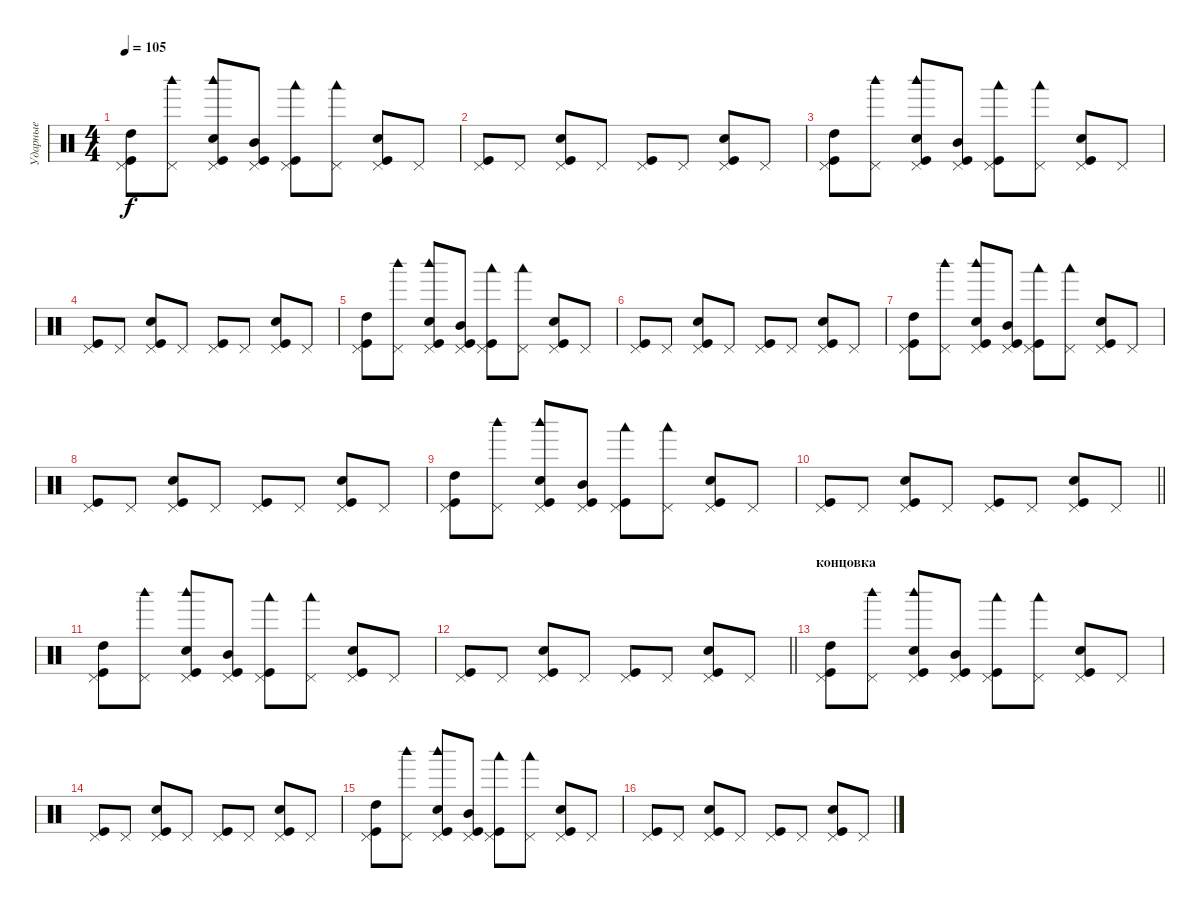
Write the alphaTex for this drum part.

\track ("Ударные" "Ударные") {instrument percussion}
\staff {score}
\articulation defaults
\ts (4 4)
\tempo 105
\clef neutral
\ks c
("Pedal Hi-Hat (hit)" "Kick (hit)" "High Tom (hit)").8{dy f} ("Pedal Hi-Hat (hit)" "Woodblock high (hit)").8 ("Pedal Hi-Hat (hit)" "Kick (hit)" "Snare (hit) 2" "Woodblock high (hit)").8 ("Pedal Hi-Hat (hit)" "Kick (hit)" "Mid Tom (hit)").8 ("Pedal Hi-Hat (hit)" "Kick (hit)" "Woodblock low (hit)").8 ("Pedal Hi-Hat (hit)" "Woodblock low (hit)").8 ("Pedal Hi-Hat (hit)" "Kick (hit)" "Snare (hit) 2").8 "Pedal Hi-Hat (hit)".8 |
("Pedal Hi-Hat (hit)" "Kick (hit)").8 "Pedal Hi-Hat (hit)".8 ("Pedal Hi-Hat (hit)" "Kick (hit)" "Snare (hit) 2").8 "Pedal Hi-Hat (hit)".8 ("Pedal Hi-Hat (hit)" "Kick (hit)").8 "Pedal Hi-Hat (hit)".8 ("Pedal Hi-Hat (hit)" "Kick (hit)" "Snare (hit) 2").8 "Pedal Hi-Hat (hit)".8 |
("Pedal Hi-Hat (hit)" "Kick (hit)" "High Tom (hit)").8 ("Pedal Hi-Hat (hit)" "Woodblock high (hit)").8 ("Pedal Hi-Hat (hit)" "Kick (hit)" "Woodblock high (hit)" "Snare (hit) 2").8 ("Pedal Hi-Hat (hit)" "Kick (hit)" "Mid Tom (hit)").8 ("Pedal Hi-Hat (hit)" "Kick (hit)" "Woodblock low (hit)").8 ("Pedal Hi-Hat (hit)" "Woodblock low (hit)").8 ("Pedal Hi-Hat (hit)" "Kick (hit)" "Snare (hit) 2").8 "Pedal Hi-Hat (hit)".8 |
("Pedal Hi-Hat (hit)" "Kick (hit)").8 "Pedal Hi-Hat (hit)".8 ("Pedal Hi-Hat (hit)" "Kick (hit)" "Snare (hit) 2").8 "Pedal Hi-Hat (hit)".8 ("Pedal Hi-Hat (hit)" "Kick (hit)").8 "Pedal Hi-Hat (hit)".8 ("Pedal Hi-Hat (hit)" "Kick (hit)" "Snare (hit) 2").8 "Pedal Hi-Hat (hit)".8 |
("Pedal Hi-Hat (hit)" "Kick (hit)" "High Tom (hit)").8 ("Pedal Hi-Hat (hit)" "Woodblock high (hit)").8 ("Pedal Hi-Hat (hit)" "Kick (hit)" "Snare (hit) 2" "Woodblock high (hit)").8 ("Pedal Hi-Hat (hit)" "Kick (hit)" "Mid Tom (hit)").8 ("Pedal Hi-Hat (hit)" "Kick (hit)" "Woodblock low (hit)").8 ("Pedal Hi-Hat (hit)" "Woodblock low (hit)").8 ("Pedal Hi-Hat (hit)" "Kick (hit)" "Snare (hit) 2").8 "Pedal Hi-Hat (hit)".8 |
("Pedal Hi-Hat (hit)" "Kick (hit)").8 "Pedal Hi-Hat (hit)".8 ("Pedal Hi-Hat (hit)" "Kick (hit)" "Snare (hit) 2").8 "Pedal Hi-Hat (hit)".8 ("Pedal Hi-Hat (hit)" "Kick (hit)").8 "Pedal Hi-Hat (hit)".8 ("Pedal Hi-Hat (hit)" "Kick (hit)" "Snare (hit) 2").8 "Pedal Hi-Hat (hit)".8 |
("Pedal Hi-Hat (hit)" "Kick (hit)" "High Tom (hit)").8 ("Pedal Hi-Hat (hit)" "Woodblock high (hit)").8 ("Pedal Hi-Hat (hit)" "Kick (hit)" "Snare (hit) 2" "Woodblock high (hit)").8 ("Pedal Hi-Hat (hit)" "Kick (hit)" "Mid Tom (hit)").8 ("Pedal Hi-Hat (hit)" "Kick (hit)" "Woodblock low (hit)").8 ("Pedal Hi-Hat (hit)" "Woodblock low (hit)").8 ("Pedal Hi-Hat (hit)" "Kick (hit)" "Snare (hit) 2").8 "Pedal Hi-Hat (hit)".8 |
("Pedal Hi-Hat (hit)" "Kick (hit)").8 "Pedal Hi-Hat (hit)".8 ("Pedal Hi-Hat (hit)" "Kick (hit)" "Snare (hit) 2").8 "Pedal Hi-Hat (hit)".8 ("Pedal Hi-Hat (hit)" "Kick (hit)").8 "Pedal Hi-Hat (hit)".8 ("Pedal Hi-Hat (hit)" "Kick (hit)" "Snare (hit) 2").8 "Pedal Hi-Hat (hit)".8 |
("Pedal Hi-Hat (hit)" "Kick (hit)" "High Tom (hit)").8 ("Pedal Hi-Hat (hit)" "Woodblock high (hit)").8 ("Pedal Hi-Hat (hit)" "Kick (hit)" "Snare (hit) 2" "Woodblock high (hit)").8 ("Pedal Hi-Hat (hit)" "Kick (hit)" "Mid Tom (hit)").8 ("Pedal Hi-Hat (hit)" "Kick (hit)" "Woodblock low (hit)").8 ("Pedal Hi-Hat (hit)" "Woodblock low (hit)").8 ("Pedal Hi-Hat (hit)" "Kick (hit)" "Snare (hit) 2").8 "Pedal Hi-Hat (hit)".8 |
\barLineRight lightlight
("Pedal Hi-Hat (hit)" "Kick (hit)").8 "Pedal Hi-Hat (hit)".8 ("Pedal Hi-Hat (hit)" "Kick (hit)" "Snare (hit) 2").8 "Pedal Hi-Hat (hit)".8 ("Pedal Hi-Hat (hit)" "Kick (hit)").8 "Pedal Hi-Hat (hit)".8 ("Pedal Hi-Hat (hit)" "Kick (hit)" "Snare (hit) 2").8 "Pedal Hi-Hat (hit)".8 |
("Pedal Hi-Hat (hit)" "Kick (hit)" "High Tom (hit)").8 ("Pedal Hi-Hat (hit)" "Woodblock high (hit)").8 ("Pedal Hi-Hat (hit)" "Kick (hit)" "Snare (hit) 2" "Woodblock high (hit)").8 ("Pedal Hi-Hat (hit)" "Kick (hit)" "Mid Tom (hit)").8 ("Pedal Hi-Hat (hit)" "Kick (hit)" "Woodblock low (hit)").8 ("Pedal Hi-Hat (hit)" "Woodblock low (hit)").8 ("Pedal Hi-Hat (hit)" "Kick (hit)" "Snare (hit) 2").8 "Pedal Hi-Hat (hit)".8 |
\barLineRight lightlight
("Pedal Hi-Hat (hit)" "Kick (hit)").8 "Pedal Hi-Hat (hit)".8 ("Pedal Hi-Hat (hit)" "Kick (hit)" "Snare (hit) 2").8 "Pedal Hi-Hat (hit)".8 ("Pedal Hi-Hat (hit)" "Kick (hit)").8 "Pedal Hi-Hat (hit)".8 ("Pedal Hi-Hat (hit)" "Kick (hit)" "Snare (hit) 2").8 "Pedal Hi-Hat (hit)".8 |
\section ("" "концовка")
("Pedal Hi-Hat (hit)" "Kick (hit)" "High Tom (hit)").8 ("Pedal Hi-Hat (hit)" "Woodblock high (hit)").8 ("Pedal Hi-Hat (hit)" "Kick (hit)" "Snare (hit) 2" "Woodblock high (hit)").8 ("Pedal Hi-Hat (hit)" "Kick (hit)" "Mid Tom (hit)").8 ("Pedal Hi-Hat (hit)" "Kick (hit)" "Woodblock low (hit)").8 ("Pedal Hi-Hat (hit)" "Woodblock low (hit)").8 ("Pedal Hi-Hat (hit)" "Kick (hit)" "Snare (hit) 2").8 "Pedal Hi-Hat (hit)".8 |
("Pedal Hi-Hat (hit)" "Kick (hit)").8 "Pedal Hi-Hat (hit)".8 ("Pedal Hi-Hat (hit)" "Kick (hit)" "Snare (hit) 2").8 "Pedal Hi-Hat (hit)".8 ("Pedal Hi-Hat (hit)" "Kick (hit)").8 "Pedal Hi-Hat (hit)".8 ("Pedal Hi-Hat (hit)" "Kick (hit)" "Snare (hit) 2").8 "Pedal Hi-Hat (hit)".8 |
("Pedal Hi-Hat (hit)" "Kick (hit)" "High Tom (hit)").8 ("Pedal Hi-Hat (hit)" "Woodblock high (hit)").8 ("Pedal Hi-Hat (hit)" "Kick (hit)" "Snare (hit) 2" "Woodblock high (hit)").8 ("Pedal Hi-Hat (hit)" "Kick (hit)" "Mid Tom (hit)").8 ("Pedal Hi-Hat (hit)" "Kick (hit)" "Woodblock low (hit)").8 ("Pedal Hi-Hat (hit)" "Woodblock low (hit)").8 ("Pedal Hi-Hat (hit)" "Kick (hit)" "Snare (hit) 2").8 "Pedal Hi-Hat (hit)".8 |
("Pedal Hi-Hat (hit)" "Kick (hit)").8 "Pedal Hi-Hat (hit)".8 ("Pedal Hi-Hat (hit)" "Kick (hit)" "Snare (hit) 2").8 "Pedal Hi-Hat (hit)".8 ("Pedal Hi-Hat (hit)" "Kick (hit)").8 "Pedal Hi-Hat (hit)".8 ("Pedal Hi-Hat (hit)" "Kick (hit)" "Snare (hit) 2").8 "Pedal Hi-Hat (hit)".8
